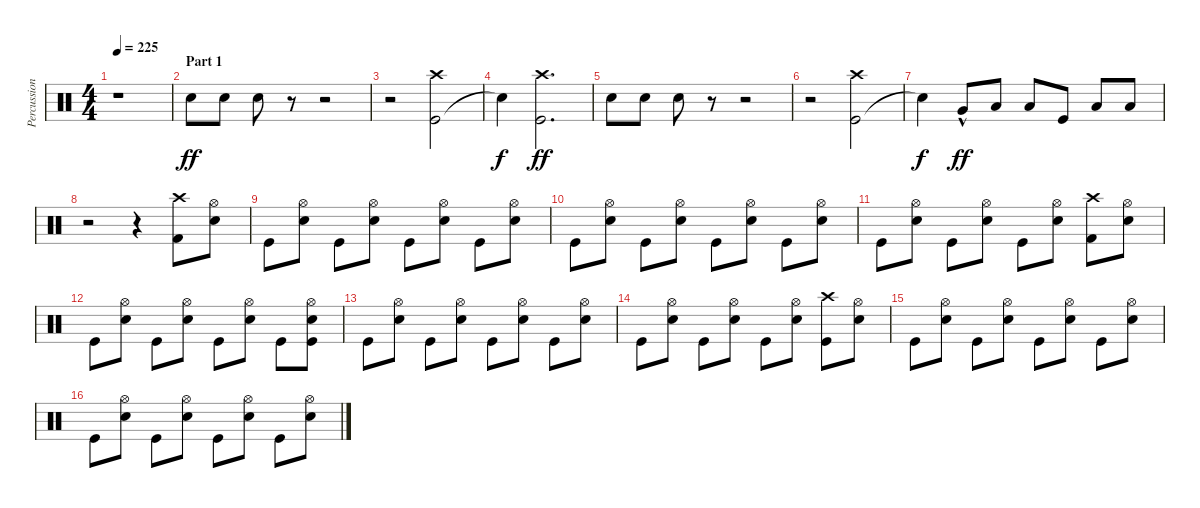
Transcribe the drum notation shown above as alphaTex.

\track ("Percussions" "Percussion") {instrument percussion}
\staff {score}
\articulation defaults
\ts (4 4)
\tempo 225
\clef neutral
\ks c
r.1{dy ff} |
\section ("" "Part 1")
"Electric Snare (hit)".8 "Electric Snare (hit)".8 "Electric Snare (hit)".8 r.8 r.2 |
r.2 ("Kick (hit)" "Crash high (hit)").2 |
"Snare (hit)"{t}.4{dy f} ("Kick (hit)" "Crash high (hit)").2{d dy ff} |
"Electric Snare (hit)".8 "Electric Snare (hit)".8 "Electric Snare (hit)".8 r.8 r.2 |
r.2 ("Kick (hit)" "Crash high (hit)").2 |
"Snare (hit)"{t}.4{dy f} "Very Low Tom (hit)"{hac}.8{dy ff} "Low Floor Tom (hit)".8 "Low Floor Tom (hit)".8 "Kick (hit)".8 "Low Floor Tom (hit)".8 "Low Floor Tom (hit)".8 |
r.2 r.4 ("Kick (hit) 2" "Crash high (hit)").8 ("Electric Snare (hit)" "Hi-Hat (open)").8 |
"Kick (hit)".8 ("Electric Snare (hit)" "Hi-Hat (open)").8 "Kick (hit)".8 ("Electric Snare (hit)" "Hi-Hat (open)").8 "Kick (hit)".8 ("Electric Snare (hit)" "Hi-Hat (open)").8 "Kick (hit)".8 ("Electric Snare (hit)" "Hi-Hat (open)").8 |
"Kick (hit)".8 ("Electric Snare (hit)" "Hi-Hat (open)").8 "Kick (hit)".8 ("Electric Snare (hit)" "Hi-Hat (open)").8 "Kick (hit)".8 ("Electric Snare (hit)" "Hi-Hat (open)").8 "Kick (hit)".8 ("Electric Snare (hit)" "Hi-Hat (open)").8 |
"Kick (hit)".8 ("Electric Snare (hit)" "Hi-Hat (open)").8 "Kick (hit)".8 ("Electric Snare (hit)" "Hi-Hat (open)").8 "Kick (hit)".8 ("Electric Snare (hit)" "Hi-Hat (open)").8 ("Kick (hit) 2" "Crash high (hit)").8 ("Electric Snare (hit)" "Hi-Hat (open)").8 |
"Kick (hit)".8 ("Electric Snare (hit)" "Hi-Hat (open)").8 "Kick (hit)".8 ("Electric Snare (hit)" "Hi-Hat (open)").8 "Kick (hit)".8 ("Electric Snare (hit)" "Hi-Hat (open)").8 "Kick (hit)".8 ("Kick (hit)" "Electric Snare (hit)" "Hi-Hat (open)").8 |
"Kick (hit)".8 ("Electric Snare (hit)" "Hi-Hat (open)").8 "Kick (hit)".8 ("Electric Snare (hit)" "Hi-Hat (open)").8 "Kick (hit)".8 ("Electric Snare (hit)" "Hi-Hat (open)").8 "Kick (hit)".8 ("Electric Snare (hit)" "Hi-Hat (open)").8 |
"Kick (hit)".8 ("Electric Snare (hit)" "Hi-Hat (open)").8 "Kick (hit)".8 ("Electric Snare (hit)" "Hi-Hat (open)").8 "Kick (hit)".8 ("Electric Snare (hit)" "Hi-Hat (open)").8 ("Kick (hit)" "Crash high (hit)").8 ("Electric Snare (hit)" "Hi-Hat (open)").8 |
"Kick (hit)".8 ("Electric Snare (hit)" "Hi-Hat (open)").8 "Kick (hit)".8 ("Electric Snare (hit)" "Hi-Hat (open)").8 "Kick (hit)".8 ("Electric Snare (hit)" "Hi-Hat (open)").8 "Kick (hit)".8 ("Electric Snare (hit)" "Hi-Hat (open)").8 |
"Kick (hit)".8 ("Electric Snare (hit)" "Hi-Hat (open)").8 "Kick (hit)".8 ("Electric Snare (hit)" "Hi-Hat (open)").8 "Kick (hit)".8 ("Electric Snare (hit)" "Hi-Hat (open)").8 "Kick (hit)".8 ("Electric Snare (hit)" "Hi-Hat (open)").8
